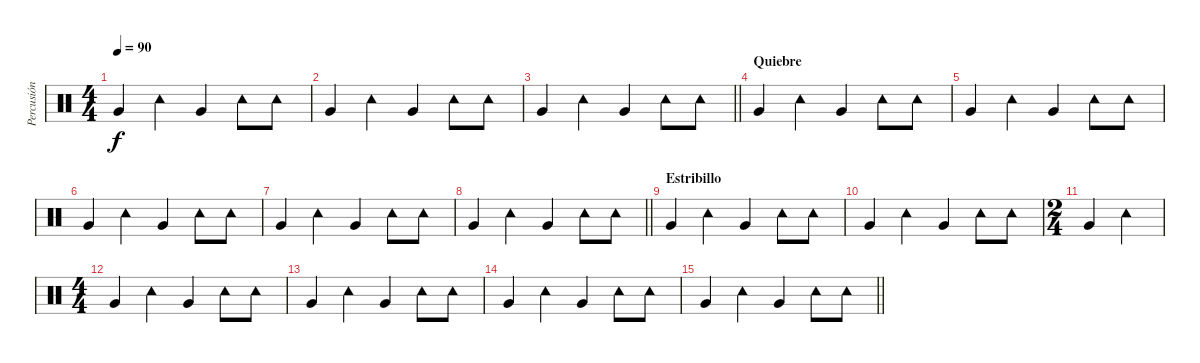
\track ("Percusión" "Percusión") {instrument percussion}
\staff {score}
\articulation defaults
\ts (4 4)
\tempo 90
\clef neutral
\ks c "Very Low Tom (hit)".4{dy f} "Tambourine (hit)".4 "Very Low Tom (hit)".4 "Tambourine (hit)".8 "Tambourine (hit)".8
|
"Very Low Tom (hit)".4 "Tambourine (hit)".4 "Very Low Tom (hit)".4 "Tambourine (hit)".8 "Tambourine (hit)".8 |
\barLineRight lightlight "Very Low Tom (hit)".4 "Tambourine (hit)".4 "Very Low Tom (hit)".4 "Tambourine (hit)".8 "Tambourine (hit)".8
|
\section ("" "Quiebre")
"Very Low Tom (hit)".4 "Tambourine (hit)".4 "Very Low Tom (hit)".4 "Tambourine (hit)".8 "Tambourine (hit)".8 |
"Very Low Tom (hit)".4 "Tambourine (hit)".4 "Very Low Tom (hit)".4 "Tambourine (hit)".8 "Tambourine (hit)".8 |
"Very Low Tom (hit)".4 "Tambourine (hit)".4 "Very Low Tom (hit)".4 "Tambourine (hit)".8 "Tambourine (hit)".8 |
"Very Low Tom (hit)".4 "Tambourine (hit)".4 "Very Low Tom (hit)".4 "Tambourine (hit)".8 "Tambourine (hit)".8 |
\barLineRight lightlight "Very Low Tom (hit)".4 "Tambourine (hit)".4 "Very Low Tom (hit)".4 "Tambourine (hit)".8 "Tambourine (hit)".8
|
\section ("" "Estribillo")
"Very Low Tom (hit)".4 "Tambourine (hit)".4 "Very Low Tom (hit)".4 "Tambourine (hit)".8 "Tambourine (hit)".8 |
"Very Low Tom (hit)".4 "Tambourine (hit)".4 "Very Low Tom (hit)".4 "Tambourine (hit)".8 "Tambourine (hit)".8 |
\ts (2 4)
"Very Low Tom (hit)".4 "Tambourine (hit)".4 |
\ts (4 4)
"Very Low Tom (hit)".4 "Tambourine (hit)".4 "Very Low Tom (hit)".4 "Tambourine (hit)".8 "Tambourine (hit)".8 |
"Very Low Tom (hit)".4 "Tambourine (hit)".4 "Very Low Tom (hit)".4 "Tambourine (hit)".8 "Tambourine (hit)".8 |
"Very Low Tom (hit)".4 "Tambourine (hit)".4 "Very Low Tom (hit)".4 "Tambourine (hit)".8 "Tambourine (hit)".8 |
\barLineRight lightlight "Very Low Tom (hit)".4 "Tambourine (hit)".4 "Very Low Tom (hit)".4 "Tambourine (hit)".8 "Tambourine (hit)".8
